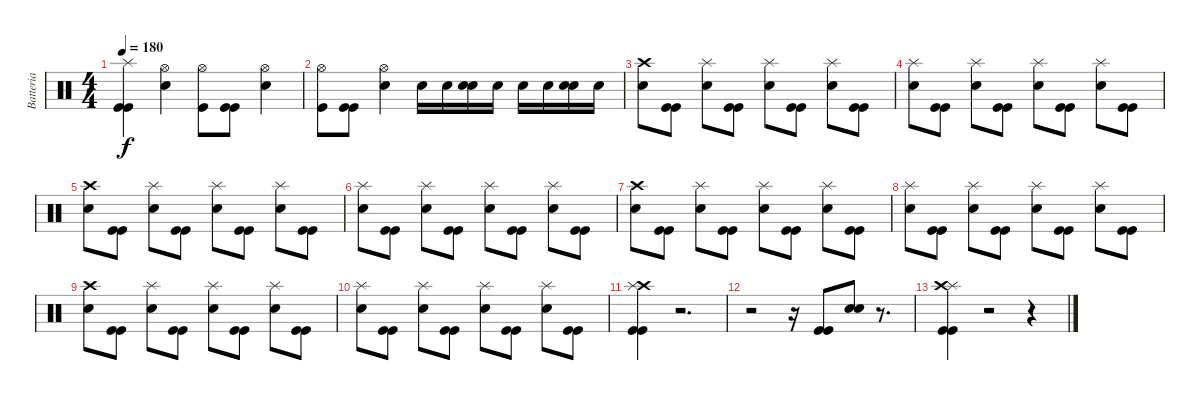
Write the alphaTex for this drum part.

\track ("Batteria" "Batteria") {instrument percussion}
\staff {score}
\articulation defaults
\ts (4 4)
\tempo 180
\clef neutral
\ks c
("Kick (hit)" "Kick (hit)" "Splash (hit)").4{dy f} ("Snare (hit) 2" "Hi-Hat (open)").4 ("Kick (hit)" "Hi-Hat (open)").8 ("Kick (hit)" "Kick (hit)").8 ("Snare (hit) 2" "Hi-Hat (open)").4 |
("Kick (hit)" "Hi-Hat (open)").8 ("Kick (hit)" "Kick (hit)").8 ("Hi-Hat (open)" "Snare (hit) 2").4 "Snare (hit) 2".16 "Snare (hit) 2".16 ("Snare (hit) 2" "Snare (hit) 2").16 "Snare (hit) 2".16 "Snare (hit) 2".16 "Snare (hit) 2".16 ("Snare (hit) 2" "Snare (hit) 2").16 "Snare (hit) 2".16 |
("Crash high (hit)" "Snare (hit) 2").8 ("Kick (hit)" "Kick (hit)").8 ("Snare (hit) 2" "Splash (hit)").8 ("Kick (hit)" "Kick (hit)").8 ("Snare (hit) 2" "Splash (hit)").8 ("Kick (hit)" "Kick (hit)").8 ("Snare (hit) 2" "Splash (hit)").8 ("Kick (hit)" "Kick (hit)").8 |
("Snare (hit) 2" "Splash (hit)").8 ("Kick (hit)" "Kick (hit)").8 ("Snare (hit) 2" "Splash (hit)").8 ("Kick (hit)" "Kick (hit)").8 ("Snare (hit) 2" "Splash (hit)").8 ("Kick (hit)" "Kick (hit)").8 ("Snare (hit) 2" "Splash (hit)").8 ("Kick (hit)" "Kick (hit)").8 |
("Snare (hit) 2" "Crash high (hit)").8 ("Kick (hit)" "Kick (hit)").8 ("Snare (hit) 2" "Splash (hit)").8 ("Kick (hit)" "Kick (hit)").8 ("Snare (hit) 2" "Splash (hit)").8 ("Kick (hit)" "Kick (hit)").8 ("Snare (hit) 2" "Splash (hit)").8 ("Kick (hit)" "Kick (hit)").8 |
("Snare (hit) 2" "Splash (hit)").8 ("Kick (hit)" "Kick (hit)").8 ("Snare (hit) 2" "Splash (hit)").8 ("Kick (hit)" "Kick (hit)").8 ("Snare (hit) 2" "Splash (hit)").8 ("Kick (hit)" "Kick (hit)").8 ("Snare (hit) 2" "Splash (hit)").8 ("Kick (hit)" "Kick (hit)").8 |
("Snare (hit) 2" "Crash high (hit)").8 ("Kick (hit)" "Kick (hit)").8 ("Snare (hit) 2" "Splash (hit)").8 ("Kick (hit)" "Kick (hit)").8 ("Snare (hit) 2" "Splash (hit)").8 ("Kick (hit)" "Kick (hit)").8 ("Snare (hit) 2" "Splash (hit)").8 ("Kick (hit)" "Kick (hit)").8 |
("Snare (hit) 2" "Splash (hit)").8 ("Kick (hit)" "Kick (hit)").8 ("Snare (hit) 2" "Splash (hit)").8 ("Kick (hit)" "Kick (hit)").8 ("Snare (hit) 2" "Splash (hit)").8 ("Kick (hit)" "Kick (hit)").8 ("Snare (hit) 2" "Splash (hit)").8 ("Kick (hit)" "Kick (hit)").8 |
("Snare (hit) 2" "Crash high (hit)").8 ("Kick (hit)" "Kick (hit)").8 ("Snare (hit) 2" "Splash (hit)").8 ("Kick (hit)" "Kick (hit)").8 ("Snare (hit) 2" "Splash (hit)").8 ("Kick (hit)" "Kick (hit)").8 ("Snare (hit) 2" "Splash (hit)").8 ("Kick (hit)" "Kick (hit)").8 |
("Snare (hit) 2" "Splash (hit)").8 ("Kick (hit)" "Kick (hit)").8 ("Snare (hit) 2" "Splash (hit)").8 ("Kick (hit)" "Kick (hit)").8 ("Snare (hit) 2" "Splash (hit)").8 ("Kick (hit)" "Kick (hit)").8 ("Snare (hit) 2" "Splash (hit)").8 ("Kick (hit)" "Kick (hit)").8 |
("Kick (hit)" "Kick (hit)" "Crash high (hit)" "Splash (hit)").4 r.2{d} |
r.2 r.16 ("Kick (hit)" "Kick (hit)").8 ("Snare (hit) 2" "Electric Snare (hit)").8 r.8{d} |
("Splash (hit)" "Kick (hit)" "Crash high (hit)" "Kick (hit)").4 r.2 r.4
